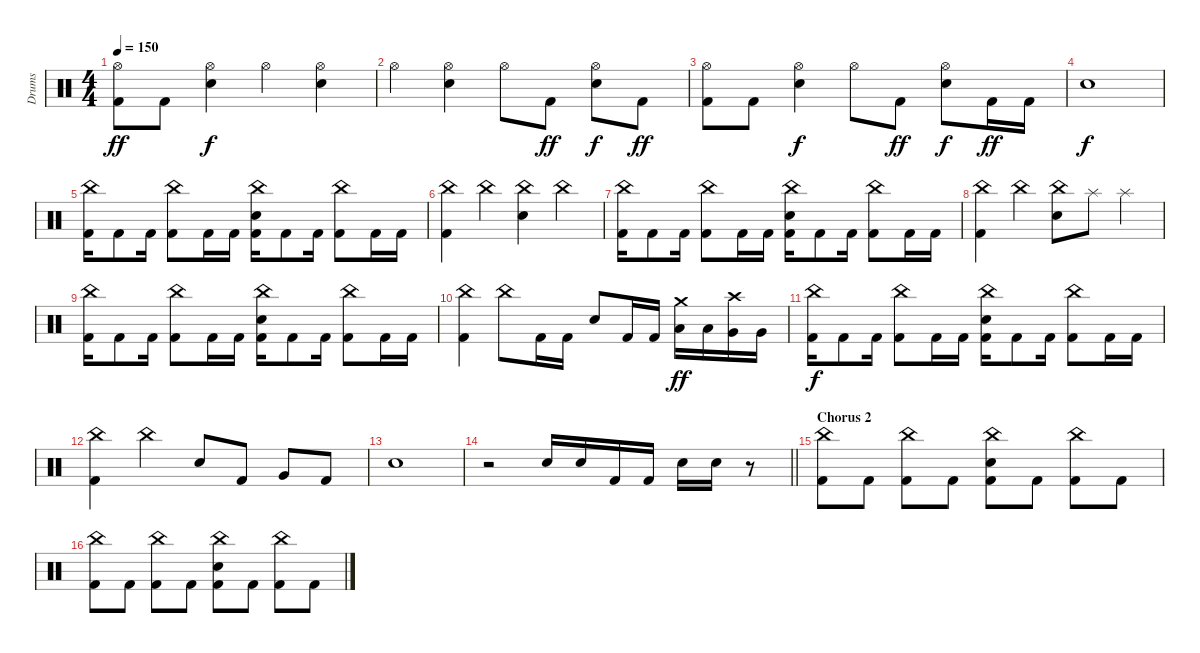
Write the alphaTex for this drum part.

\track ("Drums" "Drums") {instrument percussion}
\staff {score}
\articulation defaults
\ts (4 4)
\tempo 150
\clef neutral
\ks c
("Hi-Hat (open)" "Kick (hit) 2").8{dy ff} "Kick (hit) 2".8 ("Hi-Hat (open)" "Electric Snare (hit)").4{dy f} "Hi-Hat (open)".4 ("Hi-Hat (open)" "Electric Snare (hit)").4 |
"Hi-Hat (open)".4 ("Hi-Hat (open)" "Electric Snare (hit)").4 "Hi-Hat (open)".8 "Kick (hit) 2".8{dy ff} ("Hi-Hat (open)" "Electric Snare (hit)").8{dy f} "Kick (hit) 2".8{dy ff} |
("Hi-Hat (open)" "Kick (hit) 2").8 "Kick (hit) 2".8 ("Hi-Hat (open)" "Electric Snare (hit)").4{dy f} "Hi-Hat (open)".8 "Kick (hit) 2".8{dy ff} ("Hi-Hat (open)" "Electric Snare (hit)").8{dy f} "Kick (hit) 2".16{dy ff} "Kick (hit) 2".16 |
"Electric Snare (hit)".1{dy f} |
("China (hit)" "Kick (hit) 2").16 "Kick (hit) 2".8 "Kick (hit) 2".16 ("China (hit)" "Kick (hit) 2").8 "Kick (hit) 2".16 "Kick (hit) 2".16 ("China (hit)" "Electric Snare (hit)" "Kick (hit) 2").16 "Kick (hit) 2".8 "Kick (hit) 2".16 ("China (hit)" "Kick (hit) 2").8 "Kick (hit) 2".16 "Kick (hit) 2".16 |
("China (hit)" "Kick (hit) 2").4 "China (hit)".4 ("China (hit)" "Electric Snare (hit)").4 "China (hit)".4 |
("China (hit)" "Kick (hit) 2").16 "Kick (hit) 2".8 "Kick (hit) 2".16 ("China (hit)" "Kick (hit) 2").8 "Kick (hit) 2".16 "Kick (hit) 2".16 ("China (hit)" "Electric Snare (hit)" "Kick (hit) 2").16 "Kick (hit) 2".8 "Kick (hit) 2".16 ("China (hit)" "Kick (hit) 2").8 "Kick (hit) 2".16 "Kick (hit) 2".16 |
("China (hit)" "Kick (hit) 2").4 "China (hit)".4 ("China (hit)" "Electric Snare (hit)").8 "Splash (hit)".8 "Splash (hit)".4 |
("China (hit)" "Kick (hit) 2").16 "Kick (hit) 2".8 "Kick (hit) 2".16 ("China (hit)" "Kick (hit) 2").8 "Kick (hit) 2".16 "Kick (hit) 2".16 ("China (hit)" "Electric Snare (hit)" "Kick (hit) 2").16 "Kick (hit) 2".8 "Kick (hit) 2".16 ("China (hit)" "Kick (hit) 2").8 "Kick (hit) 2".16 "Kick (hit) 2".16 |
("China (hit)" "Kick (hit) 2").4 "China (hit)".8 "Kick (hit) 2".16 "Kick (hit) 2".16 "Electric Snare (hit)".8 "Kick (hit) 2".16 "Kick (hit) 2".16 ("Crash medium (hit)" "Low Tom (hit)").16{dy ff} "Low Tom (hit)".16 ("Crash high (hit)" "Very Low Tom (hit)").16 "Very Low Tom (hit)".16 |
("China (hit)" "Kick (hit) 2").16{dy f} "Kick (hit) 2".8 "Kick (hit) 2".16 ("China (hit)" "Kick (hit) 2").8 "Kick (hit) 2".16 "Kick (hit) 2".16 ("China (hit)" "Electric Snare (hit)" "Kick (hit) 2").16 "Kick (hit) 2".8 "Kick (hit) 2".16 ("China (hit)" "Kick (hit) 2").8 "Kick (hit) 2".16 "Kick (hit) 2".16 |
("China (hit)" "Kick (hit) 2").4 "China (hit)".4 "Electric Snare (hit)".8 "Kick (hit) 2".8 "Very Low Tom (hit)".8 "Kick (hit) 2".8 |
"Electric Snare (hit)".1 |
\barLineRight lightlight
r.2 "Electric Snare (hit)".16 "Electric Snare (hit)".16 "Kick (hit) 2".16 "Kick (hit) 2".16 "Electric Snare (hit)".16 "Electric Snare (hit)".16 r.8 |
\section ("" "Chorus 2")
("China (hit)" "Kick (hit) 2").8 "Kick (hit) 2".8 ("China (hit)" "Kick (hit) 2").8 "Kick (hit) 2".8 ("China (hit)" "Electric Snare (hit)" "Kick (hit) 2").8 "Kick (hit) 2".8 ("China (hit)" "Kick (hit) 2").8 "Kick (hit) 2".8 |
("China (hit)" "Kick (hit) 2").8 "Kick (hit) 2".8 ("China (hit)" "Kick (hit) 2").8 "Kick (hit) 2".8 ("China (hit)" "Electric Snare (hit)" "Kick (hit) 2").8 "Kick (hit) 2".8 ("China (hit)" "Kick (hit) 2").8 "Kick (hit) 2".8
